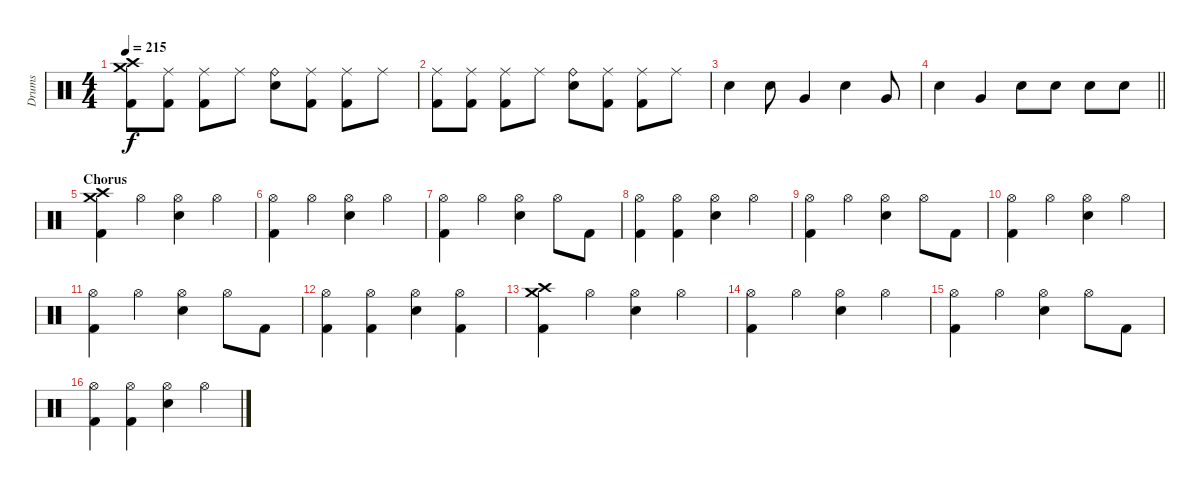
\track ("Drums" "Drums") {instrument percussion}
\staff {score}
\articulation defaults
\ts (4 4)
\tempo 215
\clef neutral
\ks c
("Crash medium (hit)" "Crash high (hit)" "Kick (hit) 2").8{dy f} ("Ride (middle)" "Kick (hit) 2").8 ("Ride (middle)" "Kick (hit) 2").8 "Ride (middle)".8 ("Ride (bell)" "Electric Snare (hit)").8 ("Ride (middle)" "Kick (hit) 2").8 ("Ride (middle)" "Kick (hit) 2").8 "Ride (middle)".8 |
("Ride (middle)" "Kick (hit) 2").8 ("Ride (middle)" "Kick (hit) 2").8 ("Ride (middle)" "Kick (hit) 2").8 "Ride (middle)".8 ("Ride (bell)" "Electric Snare (hit)").8 ("Ride (middle)" "Kick (hit) 2").8 ("Ride (middle)" "Kick (hit) 2").8 "Ride (middle)".8 |
"Electric Snare (hit)".4 "Electric Snare (hit)".8 "Very Low Tom (hit)".4 "Electric Snare (hit)".4 "Very Low Tom (hit)".8 |
\barLineRight lightlight "Electric Snare (hit)".4 "Very Low Tom (hit)".4 "Electric Snare (hit)".8 "Electric Snare (hit)".8 "Electric Snare (hit)".8 "Electric Snare (hit)".8
|
\section ("" "Chorus")
("Crash medium (hit)" "Crash high (hit)" "Kick (hit) 2").4 "Hi-Hat (open)".4 ("Hi-Hat (open)" "Electric Snare (hit)").4 "Hi-Hat (open)".4 |
("Hi-Hat (open)" "Kick (hit) 2").4 "Hi-Hat (open)".4 ("Hi-Hat (open)" "Electric Snare (hit)").4 "Hi-Hat (open)".4 |
("Hi-Hat (open)" "Kick (hit) 2").4 "Hi-Hat (open)".4 ("Hi-Hat (open)" "Electric Snare (hit)").4 "Hi-Hat (open)".8 "Kick (hit) 2".8 |
("Hi-Hat (open)" "Kick (hit) 2").4 ("Hi-Hat (open)" "Kick (hit) 2").4 ("Hi-Hat (open)" "Electric Snare (hit)").4 "Hi-Hat (open)".4 |
("Hi-Hat (open)" "Kick (hit) 2").4 "Hi-Hat (open)".4 ("Hi-Hat (open)" "Electric Snare (hit)").4 "Hi-Hat (open)".8 "Kick (hit) 2".8 |
("Hi-Hat (open)" "Kick (hit) 2").4 "Hi-Hat (open)".4 ("Hi-Hat (open)" "Electric Snare (hit)").4 "Hi-Hat (open)".4 |
("Hi-Hat (open)" "Kick (hit) 2").4 "Hi-Hat (open)".4 ("Hi-Hat (open)" "Electric Snare (hit)").4 "Hi-Hat (open)".8 "Kick (hit) 2".8 |
("Hi-Hat (open)" "Kick (hit) 2").4 ("Hi-Hat (open)" "Kick (hit) 2").4 ("Hi-Hat (open)" "Electric Snare (hit)").4 ("Hi-Hat (open)" "Kick (hit) 2").4 |
("Crash medium (hit)" "Crash high (hit)" "Kick (hit) 2").4 "Hi-Hat (open)".4 ("Hi-Hat (open)" "Electric Snare (hit)").4 "Hi-Hat (open)".4 |
("Hi-Hat (open)" "Kick (hit) 2").4 "Hi-Hat (open)".4 ("Hi-Hat (open)" "Electric Snare (hit)").4 "Hi-Hat (open)".4 |
("Hi-Hat (open)" "Kick (hit) 2").4 "Hi-Hat (open)".4 ("Hi-Hat (open)" "Electric Snare (hit)").4 "Hi-Hat (open)".8 "Kick (hit) 2".8 |
("Hi-Hat (open)" "Kick (hit) 2").4 ("Hi-Hat (open)" "Kick (hit) 2").4 ("Hi-Hat (open)" "Electric Snare (hit)").4 "Hi-Hat (open)".4
